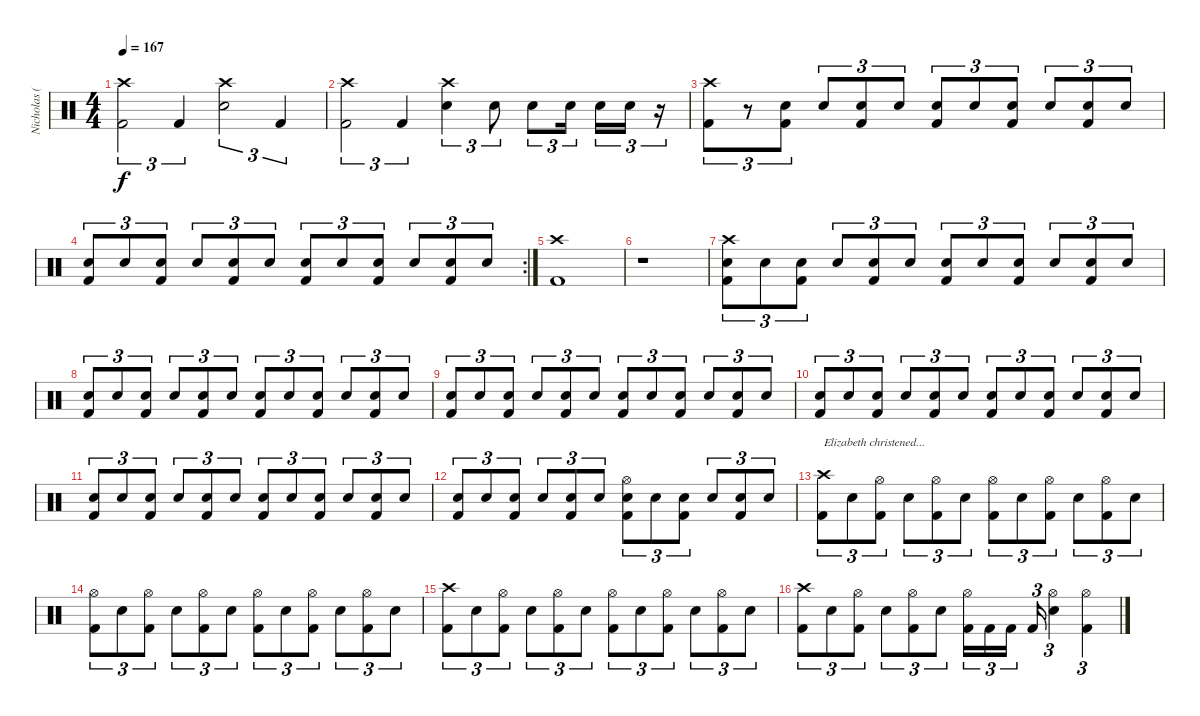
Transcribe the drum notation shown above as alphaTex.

\track ("Nicholas (Drums)" "Nicholas (") {instrument percussion}
\staff {score}
\articulation defaults
\ts (4 4)
\tempo 167
\clef neutral
\ks c
("Crash high (hit)" "Kick (hit) 2").2{tu (3 2) dy f} "Kick (hit) 2".4{tu (3 2)} ("Crash high (hit)" "Electric Snare (hit)").2{tu (3 2)} "Kick (hit) 2".4{tu (3 2)} |
("Crash high (hit)" "Kick (hit) 2").2{tu (3 2)} "Kick (hit) 2".4{tu (3 2)} ("Crash high (hit)" "Electric Snare (hit)").4{tu (3 2)} "Electric Snare (hit)".8{tu (3 2)} "Electric Snare (hit)".8{tu (3 2)} "Electric Snare (hit)".16{tu (3 2)} "Electric Snare (hit)".16{tu (3 2)} "Electric Snare (hit)".16{tu (3 2)} r.16{tu (3 2)} |
("Crash high (hit)" "Kick (hit) 2").8{tu (3 2)} r.8{tu (3 2)} ("Electric Snare (hit)" "Kick (hit) 2").8{tu (3 2)} "Electric Snare (hit)".8{tu (3 2)} ("Electric Snare (hit)" "Kick (hit) 2").8{tu (3 2)} "Electric Snare (hit)".8{tu (3 2)} ("Electric Snare (hit)" "Kick (hit) 2").8{tu (3 2)} "Electric Snare (hit)".8{tu (3 2)} ("Electric Snare (hit)" "Kick (hit) 2").8{tu (3 2)} "Electric Snare (hit)".8{tu (3 2)} ("Electric Snare (hit)" "Kick (hit) 2").8{tu (3 2)} "Electric Snare (hit)".8{tu (3 2)} |
\rc 2
("Electric Snare (hit)" "Kick (hit) 2").8{tu (3 2)} "Electric Snare (hit)".8{tu (3 2)} ("Electric Snare (hit)" "Kick (hit) 2").8{tu (3 2)} "Electric Snare (hit)".8{tu (3 2)} ("Electric Snare (hit)" "Kick (hit) 2").8{tu (3 2)} "Electric Snare (hit)".8{tu (3 2)} ("Electric Snare (hit)" "Kick (hit) 2").8{tu (3 2)} "Electric Snare (hit)".8{tu (3 2)} ("Electric Snare (hit)" "Kick (hit) 2").8{tu (3 2)} "Electric Snare (hit)".8{tu (3 2)} ("Electric Snare (hit)" "Kick (hit) 2").8{tu (3 2)} "Electric Snare (hit)".8{tu (3 2)} |
("Crash high (hit)" "Kick (hit) 2").1 |
r.1 |
("Crash high (hit)" "Electric Snare (hit)" "Kick (hit) 2").8{tu (3 2)} "Electric Snare (hit)".8{tu (3 2)} ("Electric Snare (hit)" "Kick (hit) 2").8{tu (3 2)} "Electric Snare (hit)".8{tu (3 2)} ("Electric Snare (hit)" "Kick (hit) 2").8{tu (3 2)} "Electric Snare (hit)".8{tu (3 2)} ("Electric Snare (hit)" "Kick (hit) 2").8{tu (3 2)} "Electric Snare (hit)".8{tu (3 2)} ("Electric Snare (hit)" "Kick (hit) 2").8{tu (3 2)} "Electric Snare (hit)".8{tu (3 2)} ("Electric Snare (hit)" "Kick (hit) 2").8{tu (3 2)} "Electric Snare (hit)".8{tu (3 2)} |
("Electric Snare (hit)" "Kick (hit) 2").8{tu (3 2)} "Electric Snare (hit)".8{tu (3 2)} ("Electric Snare (hit)" "Kick (hit) 2").8{tu (3 2)} "Electric Snare (hit)".8{tu (3 2)} ("Electric Snare (hit)" "Kick (hit) 2").8{tu (3 2)} "Electric Snare (hit)".8{tu (3 2)} ("Electric Snare (hit)" "Kick (hit) 2").8{tu (3 2)} "Electric Snare (hit)".8{tu (3 2)} ("Electric Snare (hit)" "Kick (hit) 2").8{tu (3 2)} "Electric Snare (hit)".8{tu (3 2)} ("Electric Snare (hit)" "Kick (hit) 2").8{tu (3 2)} "Electric Snare (hit)".8{tu (3 2)} |
("Electric Snare (hit)" "Kick (hit) 2").8{tu (3 2)} "Electric Snare (hit)".8{tu (3 2)} ("Electric Snare (hit)" "Kick (hit) 2").8{tu (3 2)} "Electric Snare (hit)".8{tu (3 2)} ("Electric Snare (hit)" "Kick (hit) 2").8{tu (3 2)} "Electric Snare (hit)".8{tu (3 2)} ("Electric Snare (hit)" "Kick (hit) 2").8{tu (3 2)} "Electric Snare (hit)".8{tu (3 2)} ("Electric Snare (hit)" "Kick (hit) 2").8{tu (3 2)} "Electric Snare (hit)".8{tu (3 2)} ("Electric Snare (hit)" "Kick (hit) 2").8{tu (3 2)} "Electric Snare (hit)".8{tu (3 2)} |
("Electric Snare (hit)" "Kick (hit) 2").8{tu (3 2)} "Electric Snare (hit)".8{tu (3 2)} ("Electric Snare (hit)" "Kick (hit) 2").8{tu (3 2)} "Electric Snare (hit)".8{tu (3 2)} ("Electric Snare (hit)" "Kick (hit) 2").8{tu (3 2)} "Electric Snare (hit)".8{tu (3 2)} ("Electric Snare (hit)" "Kick (hit) 2").8{tu (3 2)} "Electric Snare (hit)".8{tu (3 2)} ("Electric Snare (hit)" "Kick (hit) 2").8{tu (3 2)} "Electric Snare (hit)".8{tu (3 2)} ("Electric Snare (hit)" "Kick (hit) 2").8{tu (3 2)} "Electric Snare (hit)".8{tu (3 2)} |
("Electric Snare (hit)" "Kick (hit) 2").8{tu (3 2)} "Electric Snare (hit)".8{tu (3 2)} ("Electric Snare (hit)" "Kick (hit) 2").8{tu (3 2)} "Electric Snare (hit)".8{tu (3 2)} ("Electric Snare (hit)" "Kick (hit) 2").8{tu (3 2)} "Electric Snare (hit)".8{tu (3 2)} ("Electric Snare (hit)" "Kick (hit) 2").8{tu (3 2)} "Electric Snare (hit)".8{tu (3 2)} ("Electric Snare (hit)" "Kick (hit) 2").8{tu (3 2)} "Electric Snare (hit)".8{tu (3 2)} ("Electric Snare (hit)" "Kick (hit) 2").8{tu (3 2)} "Electric Snare (hit)".8{tu (3 2)} |
("Electric Snare (hit)" "Kick (hit) 2").8{tu (3 2)} "Electric Snare (hit)".8{tu (3 2)} ("Electric Snare (hit)" "Kick (hit) 2").8{tu (3 2)} "Electric Snare (hit)".8{tu (3 2)} ("Electric Snare (hit)" "Kick (hit) 2").8{tu (3 2)} "Electric Snare (hit)".8{tu (3 2)} ("Hi-Hat (open)" "Electric Snare (hit)" "Kick (hit) 2").8{tu (3 2)} "Electric Snare (hit)".8{tu (3 2)} ("Electric Snare (hit)" "Kick (hit) 2").8{tu (3 2)} "Electric Snare (hit)".8{tu (3 2)} ("Electric Snare (hit)" "Kick (hit) 2").8{tu (3 2)} "Electric Snare (hit)".8{tu (3 2)} |
("Crash high (hit)" "Kick (hit) 2").8{tu (3 2) txt "Elizabeth christened..."} "Electric Snare (hit)".8{tu (3 2)} ("Hi-Hat (open)" "Kick (hit) 2").8{tu (3 2)} "Electric Snare (hit)".8{tu (3 2)} ("Hi-Hat (open)" "Kick (hit) 2").8{tu (3 2)} "Electric Snare (hit)".8{tu (3 2)} ("Hi-Hat (open)" "Kick (hit) 2").8{tu (3 2)} "Electric Snare (hit)".8{tu (3 2)} ("Hi-Hat (open)" "Kick (hit) 2").8{tu (3 2)} "Electric Snare (hit)".8{tu (3 2)} ("Hi-Hat (open)" "Kick (hit) 2").8{tu (3 2)} "Electric Snare (hit)".8{tu (3 2)} |
("Hi-Hat (open)" "Kick (hit) 2").8{tu (3 2)} "Electric Snare (hit)".8{tu (3 2)} ("Hi-Hat (open)" "Kick (hit) 2").8{tu (3 2)} "Electric Snare (hit)".8{tu (3 2)} ("Hi-Hat (open)" "Kick (hit) 2").8{tu (3 2)} "Electric Snare (hit)".8{tu (3 2)} ("Hi-Hat (open)" "Kick (hit) 2").8{tu (3 2)} "Electric Snare (hit)".8{tu (3 2)} ("Hi-Hat (open)" "Kick (hit) 2").8{tu (3 2)} "Electric Snare (hit)".8{tu (3 2)} ("Hi-Hat (open)" "Kick (hit) 2").8{tu (3 2)} "Electric Snare (hit)".8{tu (3 2)} |
("Crash high (hit)" "Kick (hit) 2").8{tu (3 2)} "Electric Snare (hit)".8{tu (3 2)} ("Hi-Hat (open)" "Kick (hit) 2").8{tu (3 2)} "Electric Snare (hit)".8{tu (3 2)} ("Hi-Hat (open)" "Kick (hit) 2").8{tu (3 2)} "Electric Snare (hit)".8{tu (3 2)} ("Hi-Hat (open)" "Kick (hit) 2").8{tu (3 2)} "Electric Snare (hit)".8{tu (3 2)} ("Hi-Hat (open)" "Kick (hit) 2").8{tu (3 2)} "Electric Snare (hit)".8{tu (3 2)} ("Hi-Hat (open)" "Kick (hit) 2").8{tu (3 2)} "Electric Snare (hit)".8{tu (3 2)} |
("Crash high (hit)" "Kick (hit) 2").8{tu (3 2)} "Electric Snare (hit)".8{tu (3 2)} ("Hi-Hat (open)" "Kick (hit) 2").8{tu (3 2)} "Electric Snare (hit)".8{tu (3 2)} ("Hi-Hat (open)" "Kick (hit) 2").8{tu (3 2)} "Electric Snare (hit)".8{tu (3 2)} ("Hi-Hat (open)" "Kick (hit) 2").16{tu (3 2)} "Kick (hit) 2".16{tu (3 2)} "Kick (hit) 2".16{tu (3 2)} "Kick (hit) 2".16{tu (3 2)} ("Hi-Hat (open)" "Electric Snare (hit)").4{tu (3 2)} ("Hi-Hat (open)" "Kick (hit) 2").4{tu (3 2)}
